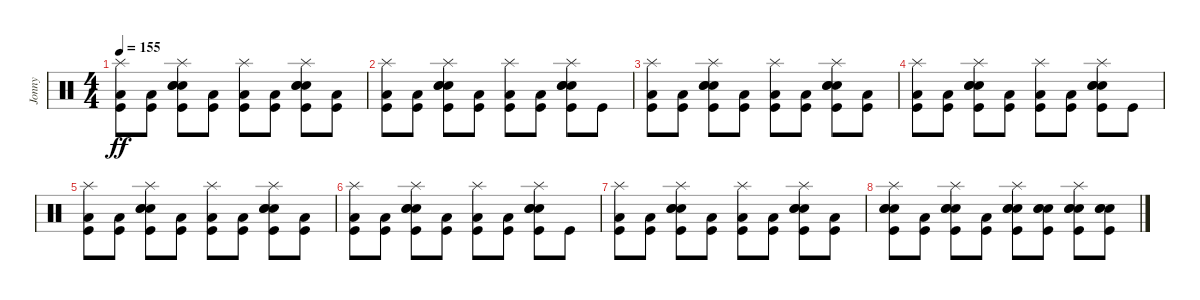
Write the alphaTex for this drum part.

\track ("Jonny" "Jonny") {instrument percussion}
\staff {score}
\articulation defaults
\ts (4 4)
\tempo 155
\clef neutral
\ks c
("Splash (hit)" "Low Floor Tom (hit)" "Kick (hit)").8{dy ff} ("Low Floor Tom (hit)" "Kick (hit)").8 ("Splash (hit)" "Electric Snare (hit)" "Electric Snare (hit)" "Electric Snare (hit)" "Kick (hit)").8 ("Low Floor Tom (hit)" "Kick (hit)").8 ("Splash (hit)" "Low Floor Tom (hit)" "Kick (hit)").8 ("Low Floor Tom (hit)" "Kick (hit)").8 ("Splash (hit)" "Electric Snare (hit)" "Electric Snare (hit)" "Electric Snare (hit)" "Kick (hit)").8 ("Low Floor Tom (hit)" "Kick (hit)").8 |
("Splash (hit)" "Low Floor Tom (hit)" "Kick (hit)").8 ("Low Floor Tom (hit)" "Kick (hit)").8 ("Splash (hit)" "Electric Snare (hit)" "Electric Snare (hit)" "Electric Snare (hit)" "Kick (hit)").8 ("Low Floor Tom (hit)" "Kick (hit)").8 ("Splash (hit)" "Low Floor Tom (hit)" "Kick (hit)").8 ("Low Floor Tom (hit)" "Kick (hit)").8 ("Splash (hit)" "Electric Snare (hit)" "Electric Snare (hit)" "Electric Snare (hit)" "Kick (hit)").8 "Kick (hit)".8 |
("Splash (hit)" "Low Floor Tom (hit)" "Kick (hit)").8 ("Low Floor Tom (hit)" "Kick (hit)").8 ("Splash (hit)" "Electric Snare (hit)" "Electric Snare (hit)" "Electric Snare (hit)" "Kick (hit)").8 ("Low Floor Tom (hit)" "Kick (hit)").8 ("Splash (hit)" "Low Floor Tom (hit)" "Kick (hit)").8 ("Low Floor Tom (hit)" "Kick (hit)").8 ("Splash (hit)" "Electric Snare (hit)" "Electric Snare (hit)" "Electric Snare (hit)" "Kick (hit)").8 ("Low Floor Tom (hit)" "Kick (hit)").8 |
("Splash (hit)" "Low Floor Tom (hit)" "Kick (hit)").8 ("Low Floor Tom (hit)" "Kick (hit)").8 ("Splash (hit)" "Electric Snare (hit)" "Electric Snare (hit)" "Electric Snare (hit)" "Kick (hit)").8 ("Low Floor Tom (hit)" "Kick (hit)").8 ("Splash (hit)" "Low Floor Tom (hit)" "Kick (hit)").8 ("Low Floor Tom (hit)" "Kick (hit)").8 ("Splash (hit)" "Electric Snare (hit)" "Electric Snare (hit)" "Electric Snare (hit)" "Kick (hit)").8 "Kick (hit)".8 |
("Splash (hit)" "Low Floor Tom (hit)" "Kick (hit)").8 ("Low Floor Tom (hit)" "Kick (hit)").8 ("Splash (hit)" "Electric Snare (hit)" "Electric Snare (hit)" "Electric Snare (hit)" "Kick (hit)").8 ("Low Floor Tom (hit)" "Kick (hit)").8 ("Splash (hit)" "Low Floor Tom (hit)" "Kick (hit)").8 ("Low Floor Tom (hit)" "Kick (hit)").8 ("Splash (hit)" "Electric Snare (hit)" "Electric Snare (hit)" "Electric Snare (hit)" "Kick (hit)").8 ("Low Floor Tom (hit)" "Kick (hit)").8 |
("Splash (hit)" "Low Floor Tom (hit)" "Kick (hit)").8 ("Low Floor Tom (hit)" "Kick (hit)").8 ("Splash (hit)" "Electric Snare (hit)" "Electric Snare (hit)" "Electric Snare (hit)" "Kick (hit)").8 ("Low Floor Tom (hit)" "Kick (hit)").8 ("Splash (hit)" "Low Floor Tom (hit)" "Kick (hit)").8 ("Low Floor Tom (hit)" "Kick (hit)").8 ("Splash (hit)" "Electric Snare (hit)" "Electric Snare (hit)" "Electric Snare (hit)" "Kick (hit)").8 "Kick (hit)".8 |
("Splash (hit)" "Low Floor Tom (hit)" "Kick (hit)").8 ("Low Floor Tom (hit)" "Kick (hit)").8 ("Splash (hit)" "Electric Snare (hit)" "Electric Snare (hit)" "Electric Snare (hit)" "Kick (hit)").8 ("Low Floor Tom (hit)" "Kick (hit)").8 ("Splash (hit)" "Low Floor Tom (hit)" "Kick (hit)").8 ("Low Floor Tom (hit)" "Kick (hit)").8 ("Splash (hit)" "Electric Snare (hit)" "Electric Snare (hit)" "Electric Snare (hit)" "Kick (hit)").8 ("Low Floor Tom (hit)" "Kick (hit)").8 |
("Splash (hit)" "Electric Snare (hit)" "Electric Snare (hit)" "Electric Snare (hit)" "Kick (hit)").8 ("Low Floor Tom (hit)" "Kick (hit)").8 ("Splash (hit)" "Electric Snare (hit)" "Electric Snare (hit)" "Electric Snare (hit)" "Kick (hit)").8 ("Low Floor Tom (hit)" "Kick (hit)").8 ("Splash (hit)" "Electric Snare (hit)" "Electric Snare (hit)" "Electric Snare (hit)" "Kick (hit)").8 ("Electric Snare (hit)" "Electric Snare (hit)" "Electric Snare (hit)" "Kick (hit)").8 ("Splash (hit)" "Electric Snare (hit)" "Electric Snare (hit)" "Electric Snare (hit)" "Kick (hit)").8 ("Electric Snare (hit)" "Electric Snare (hit)" "Electric Snare (hit)" "Kick (hit)").8
